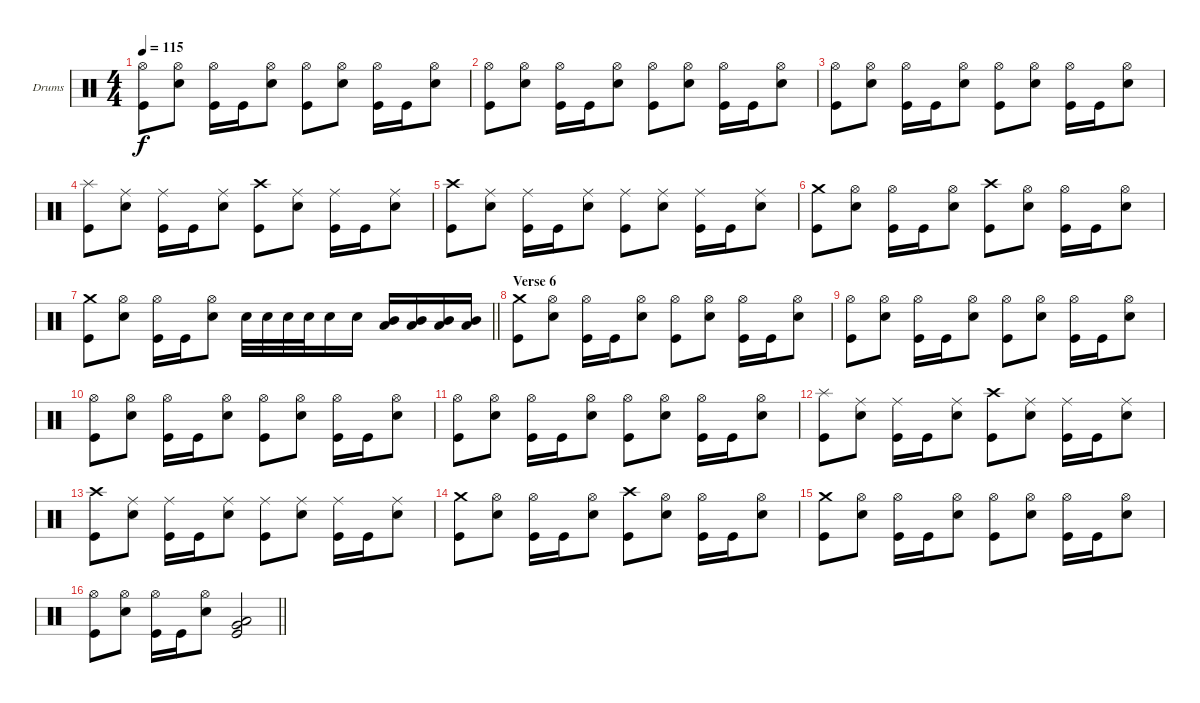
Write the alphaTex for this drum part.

\bracketExtendMode groupsimilarinstruments
\firstSystemTrackNameOrientation horizontal
\otherSystemsTrackNameOrientation horizontal
\track ("Drumkit" "Drums") {instrument percussion}
\staff {score}
\articulation defaults
\ts (4 4)
\tempo 115
\clef neutral
\ks c
("Hi-Hat (open)" "Kick (hit)").8{dy f} ("Hi-Hat (open)" "Snare (hit) 2").8 ("Hi-Hat (open)" "Kick (hit)").16 "Kick (hit)".16 ("Hi-Hat (open)" "Snare (hit) 2").8 ("Hi-Hat (open)" "Kick (hit)").8 ("Hi-Hat (open)" "Snare (hit) 2").8 ("Hi-Hat (open)" "Kick (hit)").16 "Kick (hit)".16 ("Hi-Hat (open)" "Snare (hit) 2").8 |
("Hi-Hat (open)" "Kick (hit)").8 ("Hi-Hat (open)" "Snare (hit) 2").8 ("Hi-Hat (open)" "Kick (hit)").16 "Kick (hit)".16 ("Hi-Hat (open)" "Snare (hit) 2").8 ("Hi-Hat (open)" "Kick (hit)").8 ("Hi-Hat (open)" "Snare (hit) 2").8 ("Hi-Hat (open)" "Kick (hit)").16 "Kick (hit)".16 ("Hi-Hat (open)" "Snare (hit) 2").8 |
("Hi-Hat (open)" "Kick (hit)").8 ("Hi-Hat (open)" "Snare (hit) 2").8 ("Hi-Hat (open)" "Kick (hit)").16 "Kick (hit)".16 ("Hi-Hat (open)" "Snare (hit) 2").8 ("Hi-Hat (open)" "Kick (hit)").8 ("Hi-Hat (open)" "Snare (hit) 2").8 ("Hi-Hat (open)" "Kick (hit)").16 "Kick (hit)".16 ("Hi-Hat (open)" "Snare (hit) 2").8 |
("Splash (hit)" "Kick (hit)").8 ("Ride (middle)" "Snare (hit) 2").8 ("Ride (middle)" "Kick (hit)").16 "Kick (hit)".16 ("Ride (middle)" "Snare (hit) 2").8 ("Crash high (hit)" "Kick (hit)").8 ("Ride (middle)" "Snare (hit) 2").8 ("Ride (middle)" "Kick (hit)").16 "Kick (hit)".16 ("Ride (middle)" "Snare (hit) 2").8 |
("Crash high (hit)" "Kick (hit)").8 ("Ride (middle)" "Snare (hit) 2").8 ("Ride (middle)" "Kick (hit)").16 "Kick (hit)".16 ("Ride (middle)" "Snare (hit) 2").8 ("Ride (middle)" "Kick (hit)").8 ("Ride (middle)" "Snare (hit) 2").8 ("Ride (middle)" "Kick (hit)").16 "Kick (hit)".16 ("Ride (middle)" "Snare (hit) 2").8 |
("Crash medium (hit)" "Kick (hit)").8 ("Hi-Hat (open)" "Snare (hit) 2").8 ("Hi-Hat (open)" "Kick (hit)").16 "Kick (hit)".16 ("Hi-Hat (open)" "Snare (hit) 2").8 ("Crash high (hit)" "Kick (hit)").8 ("Hi-Hat (open)" "Snare (hit) 2").8 ("Hi-Hat (open)" "Kick (hit)").16 "Kick (hit)".16 ("Hi-Hat (open)" "Snare (hit) 2").8 |
\barLineRight lightlight
("Crash medium (hit)" "Kick (hit)").8 ("Hi-Hat (open)" "Snare (hit) 2").8 ("Hi-Hat (open)" "Kick (hit)").16 "Kick (hit)".16 ("Hi-Hat (open)" "Snare (hit) 2").8 "Snare (hit) 2".32 "Snare (hit) 2".32 "Snare (hit) 2".32 "Snare (hit) 2".32 "Snare (hit) 2".16 "Snare (hit) 2".16 ("Mid Tom (hit)" "Low Tom (hit)").16 ("Mid Tom (hit)" "Low Tom (hit)").16 ("Mid Tom (hit)" "Low Tom (hit)").16 ("Mid Tom (hit)" "Low Tom (hit)").16 |
\section ("" "Verse 6")
("Crash medium (hit)" "Kick (hit)").8 ("Hi-Hat (open)" "Snare (hit) 2").8 ("Hi-Hat (open)" "Kick (hit)").16 "Kick (hit)".16 ("Hi-Hat (open)" "Snare (hit) 2").8 ("Hi-Hat (open)" "Kick (hit)").8 ("Hi-Hat (open)" "Snare (hit) 2").8 ("Hi-Hat (open)" "Kick (hit)").16 "Kick (hit)".16 ("Hi-Hat (open)" "Snare (hit) 2").8 |
("Hi-Hat (open)" "Kick (hit)").8 ("Hi-Hat (open)" "Snare (hit) 2").8 ("Hi-Hat (open)" "Kick (hit)").16 "Kick (hit)".16 ("Hi-Hat (open)" "Snare (hit) 2").8 ("Hi-Hat (open)" "Kick (hit)").8 ("Hi-Hat (open)" "Snare (hit) 2").8 ("Hi-Hat (open)" "Kick (hit)").16 "Kick (hit)".16 ("Hi-Hat (open)" "Snare (hit) 2").8 |
("Hi-Hat (open)" "Kick (hit)").8 ("Hi-Hat (open)" "Snare (hit) 2").8 ("Hi-Hat (open)" "Kick (hit)").16 "Kick (hit)".16 ("Hi-Hat (open)" "Snare (hit) 2").8 ("Hi-Hat (open)" "Kick (hit)").8 ("Hi-Hat (open)" "Snare (hit) 2").8 ("Hi-Hat (open)" "Kick (hit)").16 "Kick (hit)".16 ("Hi-Hat (open)" "Snare (hit) 2").8 |
("Hi-Hat (open)" "Kick (hit)").8 ("Hi-Hat (open)" "Snare (hit) 2").8 ("Hi-Hat (open)" "Kick (hit)").16 "Kick (hit)".16 ("Hi-Hat (open)" "Snare (hit) 2").8 ("Hi-Hat (open)" "Kick (hit)").8 ("Hi-Hat (open)" "Snare (hit) 2").8 ("Hi-Hat (open)" "Kick (hit)").16 "Kick (hit)".16 ("Hi-Hat (open)" "Snare (hit) 2").8 |
("Splash (hit)" "Kick (hit)").8 ("Ride (middle)" "Snare (hit) 2").8 ("Ride (middle)" "Kick (hit)").16 "Kick (hit)".16 ("Ride (middle)" "Snare (hit) 2").8 ("Crash high (hit)" "Kick (hit)").8 ("Ride (middle)" "Snare (hit) 2").8 ("Ride (middle)" "Kick (hit)").16 "Kick (hit)".16 ("Ride (middle)" "Snare (hit) 2").8 |
("Crash high (hit)" "Kick (hit)").8 ("Ride (middle)" "Snare (hit) 2").8 ("Ride (middle)" "Kick (hit)").16 "Kick (hit)".16 ("Ride (middle)" "Snare (hit) 2").8 ("Ride (middle)" "Kick (hit)").8 ("Ride (middle)" "Snare (hit) 2").8 ("Ride (middle)" "Kick (hit)").16 "Kick (hit)".16 ("Ride (middle)" "Snare (hit) 2").8 |
("Crash medium (hit)" "Kick (hit)").8 ("Hi-Hat (open)" "Snare (hit) 2").8 ("Hi-Hat (open)" "Kick (hit)").16 "Kick (hit)".16 ("Hi-Hat (open)" "Snare (hit) 2").8 ("Crash high (hit)" "Kick (hit)").8 ("Hi-Hat (open)" "Snare (hit) 2").8 ("Hi-Hat (open)" "Kick (hit)").16 "Kick (hit)".16 ("Hi-Hat (open)" "Snare (hit) 2").8 |
("Crash medium (hit)" "Kick (hit)").8 ("Hi-Hat (open)" "Snare (hit) 2").8 ("Hi-Hat (open)" "Kick (hit)").16 "Kick (hit)".16 ("Hi-Hat (open)" "Snare (hit) 2").8 ("Hi-Hat (open)" "Kick (hit)").8 ("Hi-Hat (open)" "Snare (hit) 2").8 ("Hi-Hat (open)" "Kick (hit)").16 "Kick (hit)".16 ("Hi-Hat (open)" "Snare (hit) 2").8 |
\barLineRight lightlight
("Hi-Hat (open)" "Kick (hit)").8 ("Hi-Hat (open)" "Snare (hit) 2").8 ("Hi-Hat (open)" "Kick (hit)").16 "Kick (hit)".16 ("Hi-Hat (open)" "Snare (hit) 2").8 ("Low Tom (hit)" "Very Low Tom (hit)" "Kick (hit)").2
